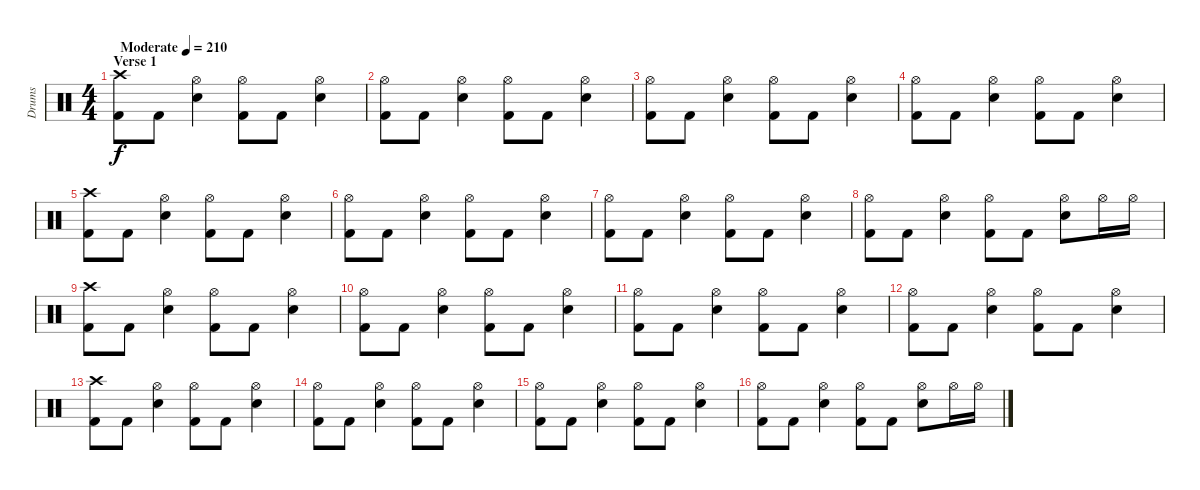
\track ("Drums" "Drums") {instrument percussion}
\staff {score}
\articulation defaults
\ts (4 4)
\section ("" "Verse 1")
\tempo (210 "Moderate")
\clef neutral
\ks c
("Crash high (hit)" "Kick (hit) 2").8{dy f} "Kick (hit) 2".8 ("Hi-Hat (open)" "Snare (hit) 2").4 ("Hi-Hat (open)" "Kick (hit) 2").8 "Kick (hit) 2".8 ("Hi-Hat (open)" "Snare (hit) 2").4 |
("Hi-Hat (open)" "Kick (hit) 2").8 "Kick (hit) 2".8 ("Hi-Hat (open)" "Snare (hit) 2").4 ("Hi-Hat (open)" "Kick (hit) 2").8 "Kick (hit) 2".8 ("Hi-Hat (open)" "Snare (hit) 2").4 |
("Hi-Hat (open)" "Kick (hit) 2").8 "Kick (hit) 2".8 ("Hi-Hat (open)" "Snare (hit) 2").4 ("Hi-Hat (open)" "Kick (hit) 2").8 "Kick (hit) 2".8 ("Hi-Hat (open)" "Snare (hit) 2").4 |
("Hi-Hat (open)" "Kick (hit) 2").8 "Kick (hit) 2".8 ("Hi-Hat (open)" "Snare (hit) 2").4 ("Hi-Hat (open)" "Kick (hit) 2").8 "Kick (hit) 2".8 ("Hi-Hat (open)" "Snare (hit) 2").4 |
("Crash high (hit)" "Kick (hit) 2").8 "Kick (hit) 2".8 ("Hi-Hat (open)" "Snare (hit) 2").4 ("Hi-Hat (open)" "Kick (hit) 2").8 "Kick (hit) 2".8 ("Hi-Hat (open)" "Snare (hit) 2").4 |
("Hi-Hat (open)" "Kick (hit) 2").8 "Kick (hit) 2".8 ("Hi-Hat (open)" "Snare (hit) 2").4 ("Hi-Hat (open)" "Kick (hit) 2").8 "Kick (hit) 2".8 ("Hi-Hat (open)" "Snare (hit) 2").4 |
("Hi-Hat (open)" "Kick (hit) 2").8 "Kick (hit) 2".8 ("Hi-Hat (open)" "Snare (hit) 2").4 ("Hi-Hat (open)" "Kick (hit) 2").8 "Kick (hit) 2".8 ("Hi-Hat (open)" "Snare (hit) 2").4 |
("Hi-Hat (open)" "Kick (hit) 2").8 "Kick (hit) 2".8 ("Hi-Hat (open)" "Snare (hit) 2").4 ("Hi-Hat (open)" "Kick (hit) 2").8 "Kick (hit) 2".8 ("Hi-Hat (open)" "Snare (hit) 2").8 "Hi-Hat (open)".16 "Hi-Hat (open)".16 |
("Crash high (hit)" "Kick (hit) 2").8 "Kick (hit) 2".8 ("Hi-Hat (open)" "Snare (hit) 2").4 ("Hi-Hat (open)" "Kick (hit) 2").8 "Kick (hit) 2".8 ("Hi-Hat (open)" "Snare (hit) 2").4 |
("Hi-Hat (open)" "Kick (hit) 2").8 "Kick (hit) 2".8 ("Hi-Hat (open)" "Snare (hit) 2").4 ("Hi-Hat (open)" "Kick (hit) 2").8 "Kick (hit) 2".8 ("Hi-Hat (open)" "Snare (hit) 2").4 |
("Hi-Hat (open)" "Kick (hit) 2").8 "Kick (hit) 2".8 ("Hi-Hat (open)" "Snare (hit) 2").4 ("Hi-Hat (open)" "Kick (hit) 2").8 "Kick (hit) 2".8 ("Hi-Hat (open)" "Snare (hit) 2").4 |
("Hi-Hat (open)" "Kick (hit) 2").8 "Kick (hit) 2".8 ("Hi-Hat (open)" "Snare (hit) 2").4 ("Hi-Hat (open)" "Kick (hit) 2").8 "Kick (hit) 2".8 ("Hi-Hat (open)" "Snare (hit) 2").4 |
("Crash high (hit)" "Kick (hit) 2").8 "Kick (hit) 2".8 ("Hi-Hat (open)" "Snare (hit) 2").4 ("Hi-Hat (open)" "Kick (hit) 2").8 "Kick (hit) 2".8 ("Hi-Hat (open)" "Snare (hit) 2").4 |
("Hi-Hat (open)" "Kick (hit) 2").8 "Kick (hit) 2".8 ("Hi-Hat (open)" "Snare (hit) 2").4 ("Hi-Hat (open)" "Kick (hit) 2").8 "Kick (hit) 2".8 ("Hi-Hat (open)" "Snare (hit) 2").4 |
("Hi-Hat (open)" "Kick (hit) 2").8 "Kick (hit) 2".8 ("Hi-Hat (open)" "Snare (hit) 2").4 ("Hi-Hat (open)" "Kick (hit) 2").8 "Kick (hit) 2".8 ("Hi-Hat (open)" "Snare (hit) 2").4 |
("Hi-Hat (open)" "Kick (hit) 2").8 "Kick (hit) 2".8 ("Hi-Hat (open)" "Snare (hit) 2").4 ("Hi-Hat (open)" "Kick (hit) 2").8 "Kick (hit) 2".8 ("Hi-Hat (open)" "Snare (hit) 2").8 "Hi-Hat (open)".16 "Hi-Hat (open)".16
